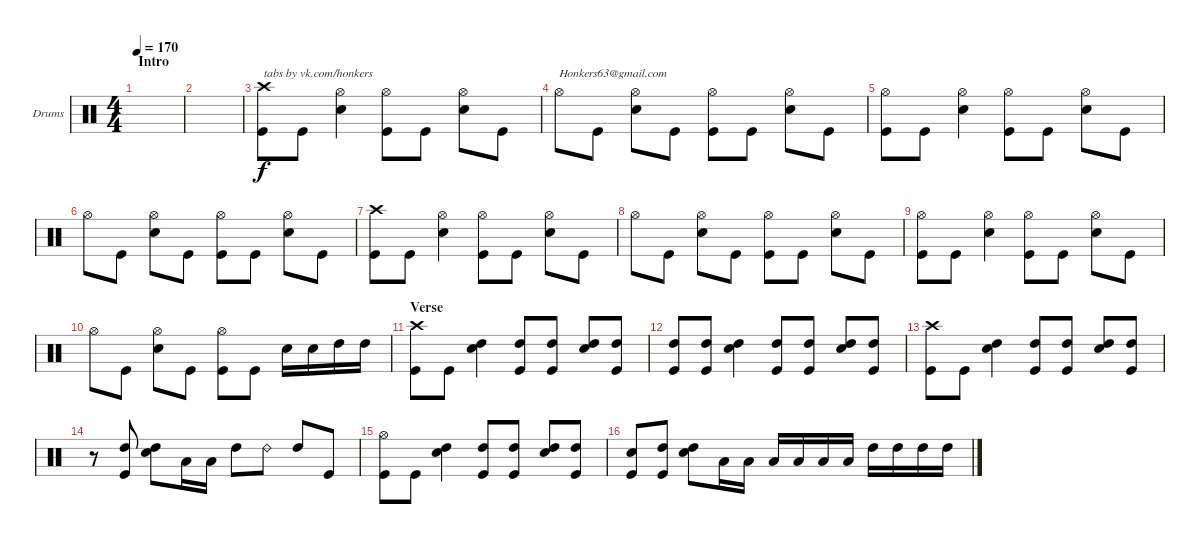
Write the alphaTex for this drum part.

\defaultSystemsLayout 4
\bracketExtendMode groupsimilarinstruments
\firstSystemTrackNameOrientation horizontal
\otherSystemsTrackNameOrientation horizontal
\track ("Drumkit" "Drums") {instrument percussion}
\staff {score}
\articulation defaults
\ts (4 4)
\section ("" "Intro")
\tempo 170
\clef neutral
\scale
0.472222
\ks c
|
\scale
0.263889 |
\scale
0.263889 ("Kick (hit)" "Crash high (hit)").8{txt "tabs by vk.com/honkers"} "Kick (hit)".8 ("Snare (hit) 2" "Hi-Hat (open)").4 ("Kick (hit)" "Hi-Hat (open)").8 "Kick (hit)".8 ("Snare (hit) 2" "Hi-Hat (open)").8 "Kick (hit)".8 |
\scale
0.333333 "Hi-Hat (open)".8{txt "Honkers63@gmail.com"} "Kick (hit)".8 ("Snare (hit) 2" "Hi-Hat (open)").8 "Kick (hit)".8 ("Hi-Hat (open)" "Kick (hit)").8 "Kick (hit)".8 ("Snare (hit) 2" "Hi-Hat (open)").8 "Kick (hit)".8 |
\scale
0.333333 ("Hi-Hat (open)" "Kick (hit)").8 "Kick (hit)".8 ("Snare (hit) 2" "Hi-Hat (open)").4 ("Kick (hit)" "Hi-Hat (open)").8 "Kick (hit)".8 ("Snare (hit) 2" "Hi-Hat (open)").8 "Kick (hit)".8 |
\scale
0.333333 "Hi-Hat (open)".8 "Kick (hit)".8 ("Snare (hit) 2" "Hi-Hat (open)").8 "Kick (hit)".8 ("Hi-Hat (open)" "Kick (hit)").8 "Kick (hit)".8 ("Snare (hit) 2" "Hi-Hat (open)").8 "Kick (hit)".8 |
\scale
0.333333 ("Kick (hit)" "Crash high (hit)").8 "Kick (hit)".8 ("Snare (hit) 2" "Hi-Hat (open)").4 ("Kick (hit)" "Hi-Hat (open)").8 "Kick (hit)".8 ("Snare (hit) 2" "Hi-Hat (open)").8 "Kick (hit)".8 |
\scale
0.333333 "Hi-Hat (open)".8 "Kick (hit)".8 ("Snare (hit) 2" "Hi-Hat (open)").8 "Kick (hit)".8 ("Hi-Hat (open)" "Kick (hit)").8 "Kick (hit)".8 ("Snare (hit) 2" "Hi-Hat (open)").8 "Kick (hit)".8 |
\scale
0.333333 ("Hi-Hat (open)" "Kick (hit)").8 "Kick (hit)".8 ("Snare (hit) 2" "Hi-Hat (open)").4 ("Kick (hit)" "Hi-Hat (open)").8 "Kick (hit)".8 ("Snare (hit) 2" "Hi-Hat (open)").8 "Kick (hit)".8 |
\scale
0.333333 "Hi-Hat (open)".8 "Kick (hit)".8 ("Snare (hit) 2" "Hi-Hat (open)").8 "Kick (hit)".8 ("Hi-Hat (open)" "Kick (hit)").8 "Kick (hit)".8 "Snare (hit) 2".16 "Snare (hit) 2".16 "High Tom (hit)".16 "High Tom (hit)".16 |
\section ("" "Verse")
\scale
0.333333 ("Kick (hit)" "Crash high (hit)").8 "Kick (hit)".8 ("Snare (hit) 2" "High Tom (hit)").4 ("Kick (hit)" "High Tom (hit)").8 ("Kick (hit)" "High Tom (hit)").8 ("Snare (hit) 2" "High Tom (hit)").8 ("Kick (hit)" "High Tom (hit)").8 |
\scale
0.333333 ("Kick (hit)" "High Tom (hit)").8 ("Kick (hit)" "High Tom (hit)").8 ("Snare (hit) 2" "High Tom (hit)").4 ("Kick (hit)" "High Tom (hit)").8 ("Kick (hit)" "High Tom (hit)").8 ("Snare (hit) 2" "High Tom (hit)").8 ("Kick (hit)" "High Tom (hit)").8 |
\scale
0.333333 ("Kick (hit)" "Crash high (hit)").8 "Kick (hit)".8 ("Snare (hit) 2" "High Tom (hit)").4 ("Kick (hit)" "High Tom (hit)").8 ("Kick (hit)" "High Tom (hit)").8 ("Snare (hit) 2" "High Tom (hit)").8 ("Kick (hit)" "High Tom (hit)").8 |
\scale
0.333333 r.8 ("Kick (hit)" "High Tom (hit)").8 ("Snare (hit) 2" "High Tom (hit)").8 "Low Tom (hit)".16 "Low Tom (hit)".16 "High Tom (hit)".8 "Ride (bell) 2".8 "High Tom (hit)".8 "Kick (hit)".8 |
\scale
0.333333 ("Kick (hit)" "Hi-Hat (open)").8 "Kick (hit)".8 ("Snare (hit) 2" "High Tom (hit)").4 ("Kick (hit)" "High Tom (hit)").8 ("Kick (hit)" "High Tom (hit)").8 ("Snare (hit) 2" "High Tom (hit)").8 ("Kick (hit)" "High Tom (hit)").8 |
\scale
0.333333 ("Snare (hit) 2" "Kick (hit)").8 ("Kick (hit)" "High Tom (hit)").8 ("Snare (hit) 2" "High Tom (hit)").8 "Low Tom (hit)".16 "Low Tom (hit)".16 "Low Tom (hit)".16 "Low Tom (hit)".16 "Low Tom (hit)".16 "Low Tom (hit)".16 "High Tom (hit)".16 "High Tom (hit)".16 "High Tom (hit)".16 "High Tom (hit)".16
